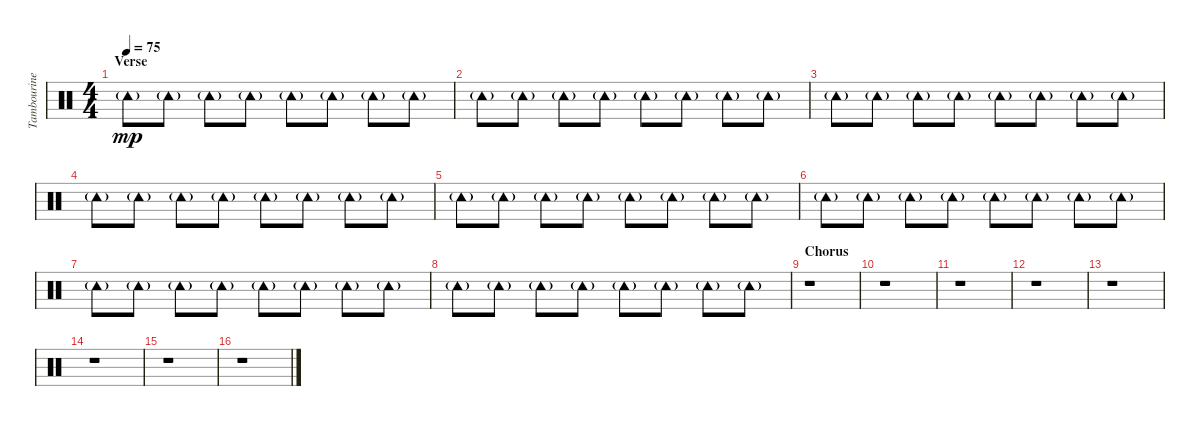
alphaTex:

\track ("Tambourine" "Tambourine") {instrument percussion}
\staff {score}
\articulation defaults
\ts (4 4)
\section ("" "Verse")
\tempo 75
\clef neutral
\ks c "Tambourine (hit)"{g}.8{dy mp} "Tambourine (hit)"{g}.8 "Tambourine (hit)"{g}.8 "Tambourine (hit)"{g}.8 "Tambourine (hit)"{g}.8 "Tambourine (hit)"{g}.8 "Tambourine (hit)"{g}.8 "Tambourine (hit)"{g}.8
|
"Tambourine (hit)"{g}.8 "Tambourine (hit)"{g}.8 "Tambourine (hit)"{g}.8 "Tambourine (hit)"{g}.8 "Tambourine (hit)"{g}.8 "Tambourine (hit)"{g}.8 "Tambourine (hit)"{g}.8 "Tambourine (hit)"{g}.8 |
"Tambourine (hit)"{g}.8 "Tambourine (hit)"{g}.8 "Tambourine (hit)"{g}.8 "Tambourine (hit)"{g}.8 "Tambourine (hit)"{g}.8 "Tambourine (hit)"{g}.8 "Tambourine (hit)"{g}.8 "Tambourine (hit)"{g}.8 |
"Tambourine (hit)"{g}.8 "Tambourine (hit)"{g}.8 "Tambourine (hit)"{g}.8 "Tambourine (hit)"{g}.8 "Tambourine (hit)"{g}.8 "Tambourine (hit)"{g}.8 "Tambourine (hit)"{g}.8 "Tambourine (hit)"{g}.8 |
"Tambourine (hit)"{g}.8 "Tambourine (hit)"{g}.8 "Tambourine (hit)"{g}.8 "Tambourine (hit)"{g}.8 "Tambourine (hit)"{g}.8 "Tambourine (hit)"{g}.8 "Tambourine (hit)"{g}.8 "Tambourine (hit)"{g}.8 |
"Tambourine (hit)"{g}.8 "Tambourine (hit)"{g}.8 "Tambourine (hit)"{g}.8 "Tambourine (hit)"{g}.8 "Tambourine (hit)"{g}.8 "Tambourine (hit)"{g}.8 "Tambourine (hit)"{g}.8 "Tambourine (hit)"{g}.8 |
"Tambourine (hit)"{g}.8 "Tambourine (hit)"{g}.8 "Tambourine (hit)"{g}.8 "Tambourine (hit)"{g}.8 "Tambourine (hit)"{g}.8 "Tambourine (hit)"{g}.8 "Tambourine (hit)"{g}.8 "Tambourine (hit)"{g}.8 |
"Tambourine (hit)"{g}.8 "Tambourine (hit)"{g}.8 "Tambourine (hit)"{g}.8 "Tambourine (hit)"{g}.8 "Tambourine (hit)"{g}.8 "Tambourine (hit)"{g}.8 "Tambourine (hit)"{g}.8 "Tambourine (hit)"{g}.8 |
\section ("" "Chorus")
r.1 |
r.1 |
r.1 |
r.1 |
r.1 |
r.1 |
r.1 |
r.1
